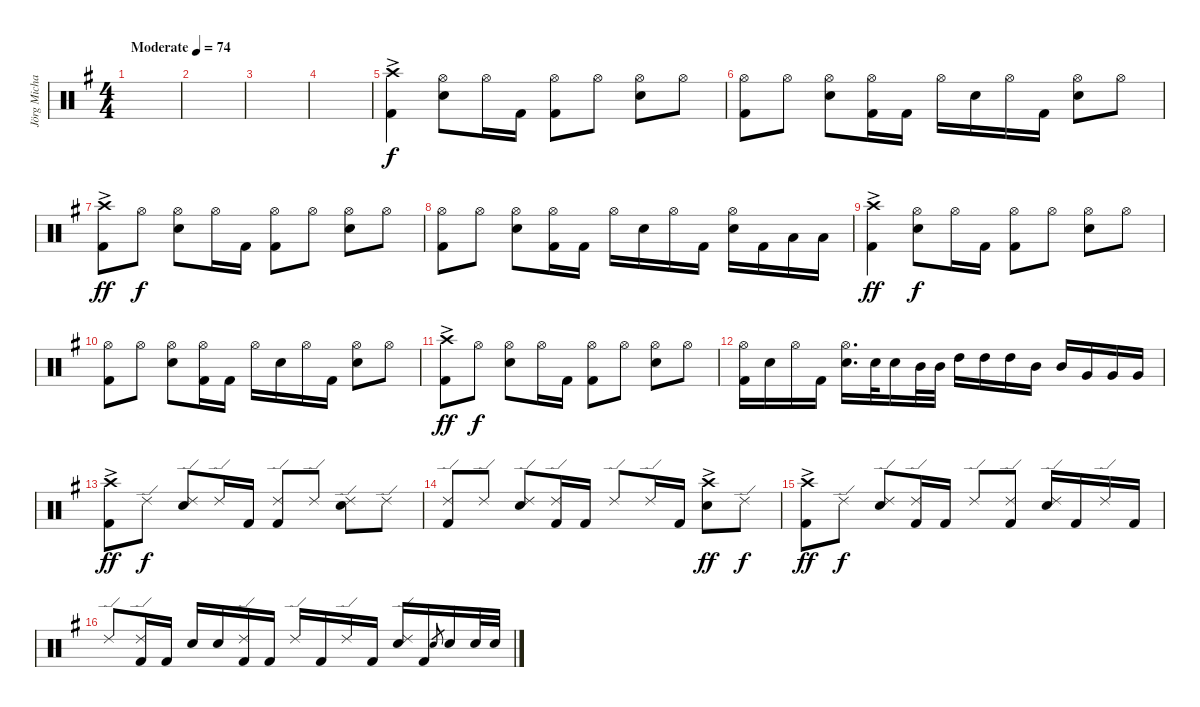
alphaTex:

\track ("Jörg Michael" "Jörg Micha") {instrument percussion}
\staff {score}
\articulation defaults
\ts (4 4)
\tempo (74 "Moderate")
\clef neutral
\ks g
|
|
|
|
("Crash high (hit)"{ac} "Kick (hit) 2"{ac}).4 ("Hi-Hat (open)" "Electric Snare (hit)").8{dy f} "Hi-Hat (open)".16 "Kick (hit) 2".16 ("Hi-Hat (open)" "Kick (hit) 2").8 "Hi-Hat (open)".8 ("Hi-Hat (open)" "Electric Snare (hit)").8 "Hi-Hat (open)".8 |
("Hi-Hat (open)" "Kick (hit) 2").8 "Hi-Hat (open)".8 ("Hi-Hat (open)" "Electric Snare (hit)").8 ("Hi-Hat (open)" "Kick (hit) 2").16 "Kick (hit) 2".16 "Hi-Hat (open)".16 "Electric Snare (hit)".16 "Hi-Hat (open)".16 "Kick (hit) 2".16 ("Hi-Hat (open)" "Electric Snare (hit)").8 "Hi-Hat (open)".8 |
("Crash high (hit)"{ac} "Kick (hit) 2"{ac}).8{dy ff} "Hi-Hat (open)".8{dy f} ("Hi-Hat (open)" "Electric Snare (hit)").8 "Hi-Hat (open)".16 "Kick (hit) 2".16 ("Hi-Hat (open)" "Kick (hit) 2").8 "Hi-Hat (open)".8 ("Hi-Hat (open)" "Electric Snare (hit)").8 "Hi-Hat (open)".8 |
("Hi-Hat (open)" "Kick (hit) 2").8 "Hi-Hat (open)".8 ("Hi-Hat (open)" "Electric Snare (hit)").8 ("Hi-Hat (open)" "Kick (hit) 2").16 "Kick (hit) 2".16 "Hi-Hat (open)".16 "Electric Snare (hit)".16 "Hi-Hat (open)".16 "Kick (hit) 2".16 ("Hi-Hat (open)" "Electric Snare (hit)").16 "Kick (hit) 2".16 "Low Tom (hit)".16 "Low Tom (hit)".16 |
("Crash high (hit)"{ac} "Kick (hit) 2"{ac}).4{dy ff} ("Hi-Hat (open)" "Electric Snare (hit)").8{dy f} "Hi-Hat (open)".16 "Kick (hit) 2".16 ("Hi-Hat (open)" "Kick (hit) 2").8 "Hi-Hat (open)".8 ("Hi-Hat (open)" "Electric Snare (hit)").8 "Hi-Hat (open)".8 |
("Hi-Hat (open)" "Kick (hit) 2").8 "Hi-Hat (open)".8 ("Hi-Hat (open)" "Electric Snare (hit)").8 ("Hi-Hat (open)" "Kick (hit) 2").16 "Kick (hit) 2".16 "Hi-Hat (open)".16 "Electric Snare (hit)".16 "Hi-Hat (open)".16 "Kick (hit) 2".16 ("Hi-Hat (open)" "Electric Snare (hit)").8 "Hi-Hat (open)".8 |
("Crash high (hit)"{ac} "Kick (hit) 2"{ac}).8{dy ff} "Hi-Hat (open)".8{dy f} ("Hi-Hat (open)" "Electric Snare (hit)").8 "Hi-Hat (open)".16 "Kick (hit) 2".16 ("Hi-Hat (open)" "Kick (hit) 2").8 "Hi-Hat (open)".8 ("Hi-Hat (open)" "Electric Snare (hit)").8 "Hi-Hat (open)".8 |
("Hi-Hat (open)" "Kick (hit) 2").16 "Electric Snare (hit)".16 "Hi-Hat (open)".16 "Kick (hit) 2".16 ("Hi-Hat (open)" "Electric Snare (hit)").16{d} "Electric Snare (hit)".32 "Electric Snare (hit)".16 "Mid Tom (hit)".32 "Mid Tom (hit)".32 "High Tom (hit)".16 "High Tom (hit)".16 "High Tom (hit)".16 "Mid Tom (hit)".16 "Mid Tom (hit)".16 "Very Low Tom (hit)".16 "Very Low Tom (hit)".16 "Very Low Tom (hit)".16 |
("Crash high (hit)"{ac} "Kick (hit) 2"{ac}).8{dy ff} "Ride (edge) 2".8{dy f} ("Ride (edge) 2" "Electric Snare (hit)").8 "Ride (edge) 2".16 "Kick (hit) 2".16 ("Ride (edge) 2" "Kick (hit) 2").8 "Ride (edge) 2".8 ("Ride (edge) 2" "Electric Snare (hit)").8 "Ride (edge) 2".8 |
("Ride (edge) 2" "Kick (hit) 2").8 "Ride (edge) 2".8 ("Ride (edge) 2" "Electric Snare (hit)").8 ("Ride (edge) 2" "Kick (hit) 2").16 "Kick (hit) 2".16 "Ride (edge) 2".8 "Ride (edge) 2".16 "Kick (hit) 2".16 ("Crash high (hit)"{ac} "Electric Snare (hit)"{ac}).8{dy ff} "Ride (edge) 2".8{dy f} |
("Crash high (hit)"{ac} "Kick (hit) 2"{ac}).8{dy ff} "Ride (edge) 2".8{dy f} ("Ride (edge) 2" "Electric Snare (hit)").8 ("Ride (edge) 2" "Kick (hit) 2").16 "Kick (hit) 2".16 "Ride (edge) 2".8 ("Ride (edge) 2" "Kick (hit) 2").8 ("Ride (edge) 2" "Electric Snare (hit)").16 "Kick (hit) 2".16 "Ride (edge) 2".16 "Kick (hit) 2".16 |
"Ride (edge) 2".8 ("Ride (edge) 2" "Kick (hit) 2").16 "Kick (hit) 2".16 "Electric Snare (hit)".16 "Electric Snare (hit)".16 ("Ride (edge) 2" "Kick (hit) 2").16 "Kick (hit) 2".16 "Ride (edge) 2".16 "Kick (hit) 2".16 "Ride (edge) 2".16 "Kick (hit) 2".16 ("Ride (edge) 2" "Electric Snare (hit)").16 "Kick (hit) 2".16 "Electric Snare (hit)".8{gr} "Electric Snare (hit)".16 "Electric Snare (hit)".32 "Electric Snare (hit)".32
